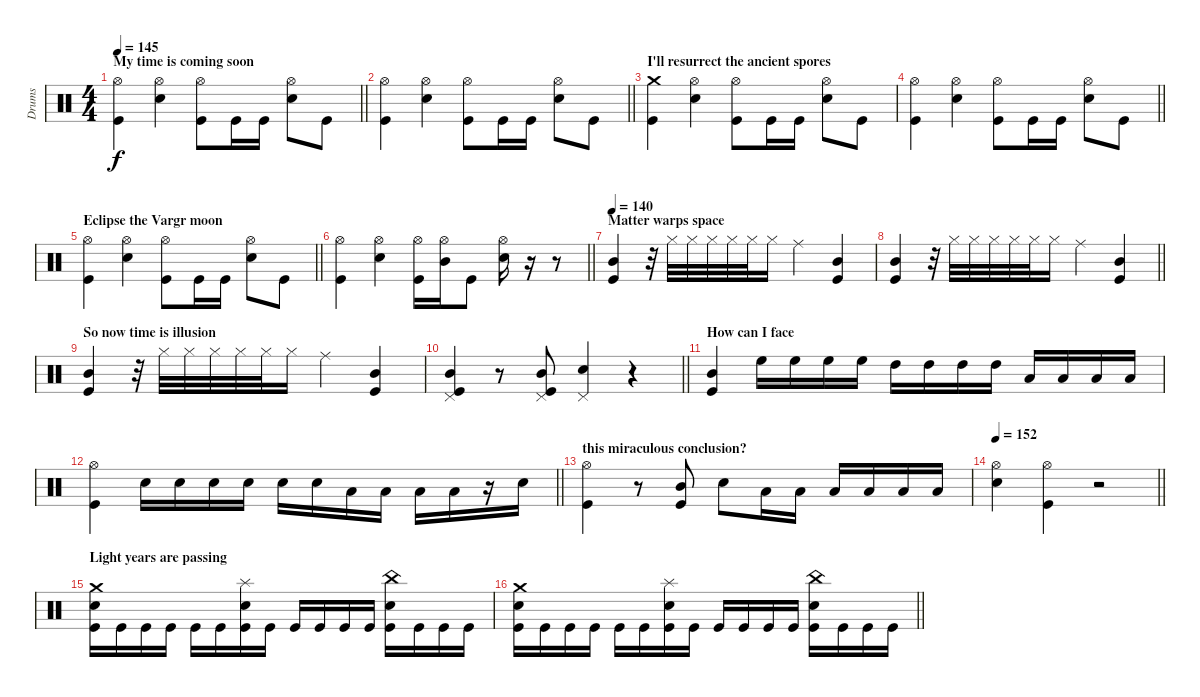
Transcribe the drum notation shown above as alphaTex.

\track ("Drums" "Drums") {instrument percussion}
\staff {score}
\articulation defaults
\ts (4 4)
\section ("" "My time is coming soon")
\tempo 145
\clef neutral
\barLineRight lightlight
\ks c
("Hi-Hat (open)" "Kick (hit)").4{dy f} ("Hi-Hat (open)" "Snare (hit) 2").4 ("Hi-Hat (open)" "Kick (hit)").8 "Kick (hit)".16 "Kick (hit)".16 ("Hi-Hat (open)" "Snare (hit) 2").8 "Kick (hit)".8 |
\barLineRight lightlight
("Hi-Hat (open)" "Kick (hit)").4 ("Hi-Hat (open)" "Snare (hit) 2").4 ("Hi-Hat (open)" "Kick (hit)").8 "Kick (hit)".16 "Kick (hit)".16 ("Hi-Hat (open)" "Snare (hit) 2").8 "Kick (hit)".8 |
\section ("" "I'll resurrect the ancient spores")
("Crash medium (hit)" "Kick (hit)").4 ("Hi-Hat (open)" "Snare (hit) 2").4 ("Hi-Hat (open)" "Kick (hit)").8 "Kick (hit)".16 "Kick (hit)".16 ("Hi-Hat (open)" "Snare (hit) 2").8 "Kick (hit)".8 |
\barLineRight lightlight
("Hi-Hat (open)" "Kick (hit)").4 ("Hi-Hat (open)" "Snare (hit) 2").4 ("Hi-Hat (open)" "Kick (hit)").8 "Kick (hit)".16 "Kick (hit)".16 ("Hi-Hat (open)" "Snare (hit) 2").8 "Kick (hit)".8 |
\section ("" "Eclipse the Vargr moon")
\barLineRight lightlight
("Hi-Hat (open)" "Kick (hit)").4 ("Hi-Hat (open)" "Snare (hit) 2").4 ("Hi-Hat (open)" "Kick (hit)").8 "Kick (hit)".16 "Kick (hit)".16 ("Hi-Hat (open)" "Snare (hit) 2").8 "Kick (hit)".8 |
\barLineRight lightlight
("Hi-Hat (open)" "Kick (hit)").4 ("Hi-Hat (open)" "Snare (hit) 2").4 ("Hi-Hat (open)" "Kick (hit)").16 ("Hi-Hat (open)" "Mid Tom (hit)").16 "Kick (hit)".8 ("Hi-Hat (open)" "Snare (hit) 2").16 r.16 r.8 |
\section ("" "Matter warps space")
\tempo 140
("Mid Tom (hit)" "Kick (hit)").4 r.32 "Hi-Hat (closed)".32 "Hi-Hat (closed)".32 "Hi-Hat (closed)".32 "Hi-Hat (closed)".32 "Hi-Hat (closed)".32 "Hi-Hat (closed)".16 "Ride (middle)".4 ("Mid Tom (hit)" "Kick (hit)").4 |
\barLineRight lightlight
("Mid Tom (hit)" "Kick (hit)").4 r.32 "Hi-Hat (closed)".32 "Hi-Hat (closed)".32 "Hi-Hat (closed)".32 "Hi-Hat (closed)".32 "Hi-Hat (closed)".32 "Hi-Hat (closed)".16 "Ride (middle)".4 ("Mid Tom (hit)" "Kick (hit)").4 |
\section ("" "So now time is illusion")
("Mid Tom (hit)" "Kick (hit)").4 r.32 "Hi-Hat (closed)".32 "Hi-Hat (closed)".32 "Hi-Hat (closed)".32 "Hi-Hat (closed)".32 "Hi-Hat (closed)".32 "Hi-Hat (closed)".16 "Ride (middle)".4 ("Mid Tom (hit)" "Kick (hit)").4 |
\barLineRight lightlight
("Pedal Hi-Hat (hit)" "Mid Tom (hit)" "Kick (hit)").4 r.8 ("Pedal Hi-Hat (hit)" "Mid Tom (hit)" "Kick (hit)").8 ("Pedal Hi-Hat (hit)" "Snare (hit) 2").4 r.4 |
\section ("" "How can I face ")
("Mid Tom (hit)" "Kick (hit)").4 "High Floor Tom (hit)".16 "High Floor Tom (hit)".16 "High Floor Tom (hit)".16 "High Floor Tom (hit)".16 "High Tom (hit)".16 "High Tom (hit)".16 "High Tom (hit)".16 "High Tom (hit)".16 "Low Tom (hit)".16 "Low Tom (hit)".16 "Low Tom (hit)".16 "Low Tom (hit)".16 |
\barLineRight lightlight
("Hi-Hat (open)" "Kick (hit)").4 "Snare (hit) 2".16 "Snare (hit) 2".16 "Snare (hit) 2".16 "Snare (hit) 2".16 "Snare (hit) 2".16 "Snare (hit) 2".16 "Low Tom (hit)".16 "Low Tom (hit)".16 "Low Tom (hit)".16 "Low Tom (hit)".16 r.16 "Snare (hit) 2".16 |
\section ("" "this miraculous conclusion?")
("Hi-Hat (open)" "Kick (hit)").4 r.8 ("Mid Tom (hit)" "Kick (hit)").8 "Snare (hit) 2".8 "Low Tom (hit)".16 "Low Tom (hit)".16 "Low Tom (hit)".16 "Low Tom (hit)".16 "Low Tom (hit)".16 "Low Tom (hit)".16 |
\tempo 152
\barLineRight lightlight
("Hi-Hat (open)" "Snare (hit) 2").4 ("Hi-Hat (open)" "Kick (hit)").4 r.2 |
\section ("" "Light years are passing ")
("Crash medium (hit)" "Snare (hit) 2" "Kick (hit)").16 "Kick (hit)".16 "Kick (hit)".16 "Kick (hit)".16 "Kick (hit)".16 "Kick (hit)".16 ("Splash (hit)" "Snare (hit) 2" "Kick (hit)").16 "Kick (hit)".16 "Kick (hit)".16 "Kick (hit)".16 "Kick (hit)".16 "Kick (hit)".16 ("China (hit)" "Snare (hit) 2" "Kick (hit)").16 "Kick (hit)".16 "Kick (hit)".16 "Kick (hit)".16 |
\barLineRight lightlight
("Crash medium (hit)" "Snare (hit) 2" "Kick (hit)").16 "Kick (hit)".16 "Kick (hit)".16 "Kick (hit)".16 "Kick (hit)".16 "Kick (hit)".16 ("Splash (hit)" "Snare (hit) 2" "Kick (hit)").16 "Kick (hit)".16 "Kick (hit)".16 "Kick (hit)".16 "Kick (hit)".16 "Kick (hit)".16 ("China (hit)" "Snare (hit) 2" "Kick (hit)").16 "Kick (hit)".16 "Kick (hit)".16 "Kick (hit)".16
